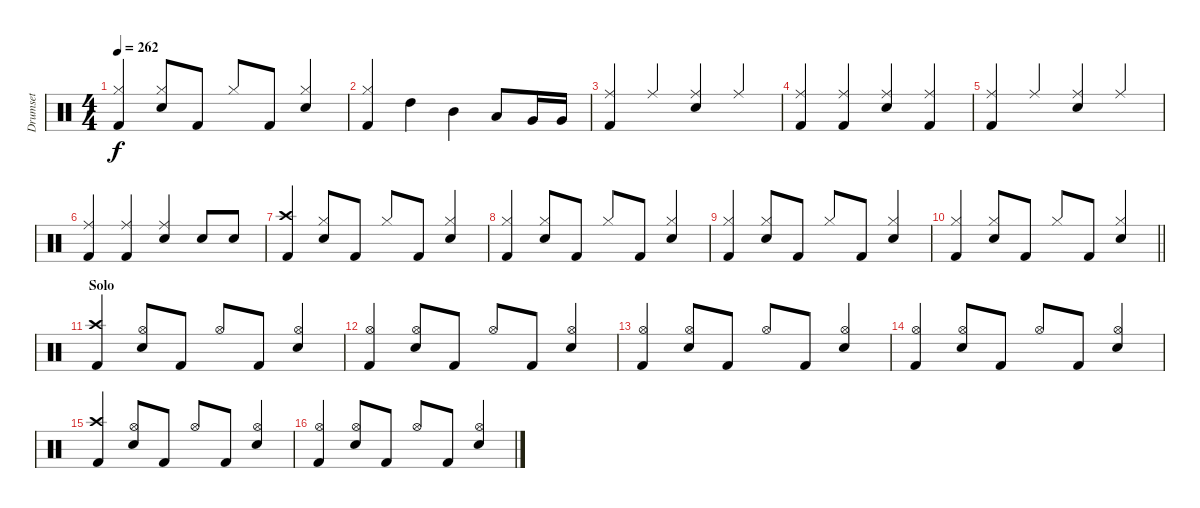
\track ("Drumset" "Drumset") {instrument percussion}
\staff {score}
\articulation defaults
\ts (4 4)
\tempo 262
\clef neutral
\ks c
("Hi-Hat (closed)" "Kick (hit) 2").4{dy f beam Up} ("Hi-Hat (closed)" "Snare (hit) 2").8{beam Up} "Kick (hit) 2".8{beam Up} "Hi-Hat (closed)".8{beam Up} "Kick (hit) 2".8{beam Up} ("Snare (hit) 2" "Hi-Hat (closed)").4{beam Up} |
("Hi-Hat (closed)" "Kick (hit) 2").4{beam Up} "High Tom (hit)".4 "Mid Tom (hit)".4 "Low Tom (hit)".8 "Very Low Tom (hit)".16 "Very Low Tom (hit)".16 |
("Ride (middle)" "Kick (hit) 2").4{beam Up} "Ride (middle)".4{beam Up} ("Ride (middle)" "Snare (hit) 2").4{beam Up} "Ride (middle)".4{beam Up} |
("Ride (middle)" "Kick (hit) 2").4{beam Up} ("Ride (middle)" "Kick (hit) 2").4{beam Up} ("Ride (middle)" "Snare (hit) 2").4{beam Up} ("Ride (middle)" "Kick (hit) 2").4{beam Up} |
("Ride (middle)" "Kick (hit) 2").4{beam Up} "Ride (middle)".4{beam Up} ("Ride (middle)" "Snare (hit) 2").4{beam Up} "Ride (middle)".4{beam Up} |
("Ride (middle)" "Kick (hit) 2").4{beam Up} ("Ride (middle)" "Kick (hit) 2").4{beam Up} ("Ride (middle)" "Snare (hit) 2").4{beam Up} "Snare (hit) 2".8{beam Up} "Snare (hit) 2".8{beam Up} |
("Kick (hit) 2" "Crash high (hit)").4{beam Up} ("Hi-Hat (closed)" "Snare (hit) 2").8{beam Up} "Kick (hit) 2".8{beam Up} "Hi-Hat (closed)".8{beam Up} "Kick (hit) 2".8{beam Up} ("Snare (hit) 2" "Hi-Hat (closed)").4{beam Up} |
("Hi-Hat (closed)" "Kick (hit) 2").4{beam Up} ("Hi-Hat (closed)" "Snare (hit) 2").8{beam Up} "Kick (hit) 2".8{beam Up} "Hi-Hat (closed)".8{beam Up} "Kick (hit) 2".8{beam Up} ("Snare (hit) 2" "Hi-Hat (closed)").4{beam Up} |
("Hi-Hat (closed)" "Kick (hit) 2").4{beam Up} ("Hi-Hat (closed)" "Snare (hit) 2").8{beam Up} "Kick (hit) 2".8{beam Up} "Hi-Hat (closed)".8{beam Up} "Kick (hit) 2".8{beam Up} ("Snare (hit) 2" "Hi-Hat (closed)").4{beam Up} |
\barLineRight lightlight
("Hi-Hat (closed)" "Kick (hit) 2").4{beam Up} ("Hi-Hat (closed)" "Snare (hit) 2").8{beam Up} "Kick (hit) 2".8{beam Up} "Hi-Hat (closed)".8{beam Up} "Kick (hit) 2".8{beam Up} ("Snare (hit) 2" "Hi-Hat (closed)").4{beam Up} |
\section ("" "Solo")
("Crash high (hit)" "Kick (hit) 2").4{beam Up} ("Snare (hit) 2" "Hi-Hat (open)").8{beam Up} "Kick (hit) 2".8{beam Up} "Hi-Hat (open)".8{beam Up} "Kick (hit) 2".8{beam Up} ("Hi-Hat (open)" "Snare (hit) 2").4{beam Up} |
("Hi-Hat (open)" "Kick (hit) 2").4{beam Up} ("Snare (hit) 2" "Hi-Hat (open)").8{beam Up} "Kick (hit) 2".8{beam Up} "Hi-Hat (open)".8{beam Up} "Kick (hit) 2".8{beam Up} ("Hi-Hat (open)" "Snare (hit) 2").4{beam Up} |
("Kick (hit) 2" "Hi-Hat (open)").4{beam Up} ("Snare (hit) 2" "Hi-Hat (open)").8{beam Up} "Kick (hit) 2".8{beam Up} "Hi-Hat (open)".8{beam Up} "Kick (hit) 2".8{beam Up} ("Hi-Hat (open)" "Snare (hit) 2").4{beam Up} |
("Hi-Hat (open)" "Kick (hit) 2").4{beam Up} ("Snare (hit) 2" "Hi-Hat (open)").8{beam Up} "Kick (hit) 2".8{beam Up} "Hi-Hat (open)".8{beam Up} "Kick (hit) 2".8{beam Up} ("Hi-Hat (open)" "Snare (hit) 2").4{beam Up} |
("Crash high (hit)" "Kick (hit) 2").4{beam Up} ("Snare (hit) 2" "Hi-Hat (open)").8{beam Up} "Kick (hit) 2".8{beam Up} "Hi-Hat (open)".8{beam Up} "Kick (hit) 2".8{beam Up} ("Hi-Hat (open)" "Snare (hit) 2").4{beam Up} |
("Hi-Hat (open)" "Kick (hit) 2").4{beam Up} ("Snare (hit) 2" "Hi-Hat (open)").8{beam Up} "Kick (hit) 2".8{beam Up} "Hi-Hat (open)".8{beam Up} "Kick (hit) 2".8{beam Up} ("Hi-Hat (open)" "Snare (hit) 2").4{beam Up}
